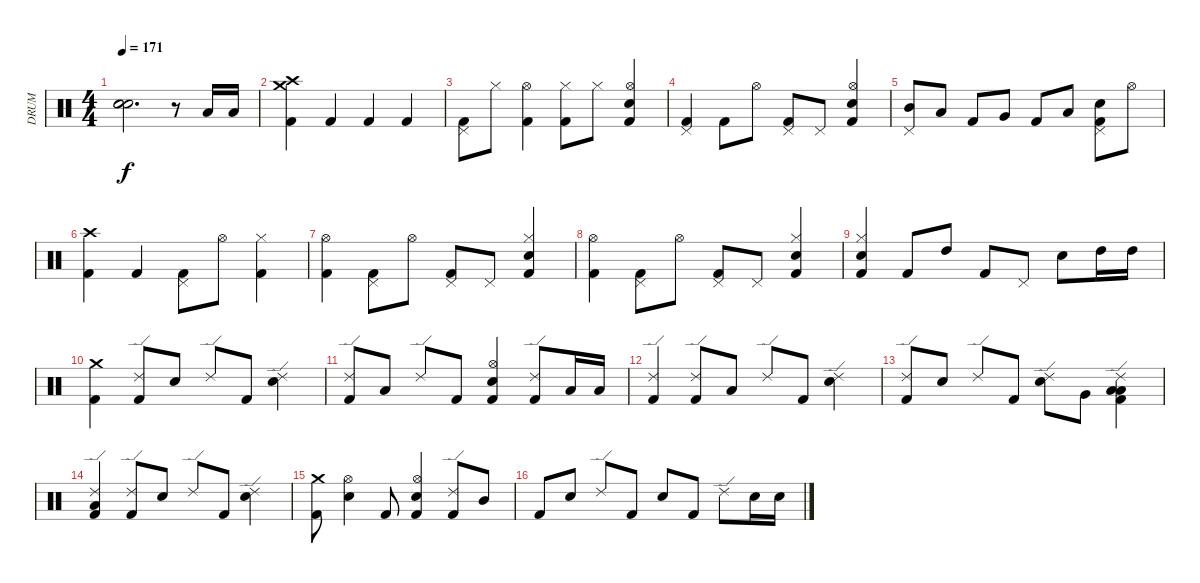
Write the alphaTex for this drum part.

\track ("DRUM" "DRUM") {instrument percussion}
\staff {score}
\articulation defaults
\ts (4 4)
\tempo 171
\clef neutral
\ks c
("Snare (hit)"{t} "Snare (hit)"{t} "Snare (hit)"{t}).2{d dy f} r.8 "Low Tom (hit)".16 "Low Tom (hit)".16 |
("Crash medium (hit)" "Crash high (hit)" "Kick (hit) 2").4 "Kick (hit) 2".4 "Kick (hit) 2".4 "Kick (hit) 2".4 |
("Pedal Hi-Hat (hit)" "Kick (hit) 2").8 "Hi-Hat (closed)".8 ("Hi-Hat (open)" "Kick (hit) 2").4 ("Hi-Hat (closed)" "Kick (hit) 2").8 "Hi-Hat (closed)".8 ("Hi-Hat (open)" "Electric Snare (hit)" "Kick (hit) 2").4 |
("Pedal Hi-Hat (hit)" "Kick (hit) 2").4 "Kick (hit) 2".8 "Hi-Hat (open)".8 ("Pedal Hi-Hat (hit)" "Kick (hit) 2").8 "Pedal Hi-Hat (hit)".8 ("Hi-Hat (open)" "Electric Snare (hit)" "Kick (hit) 2").4 |
("Pedal Hi-Hat (hit)" "Mid Tom (hit)").8 "Low Tom (hit)".8 "Kick (hit) 2".8 "Very Low Tom (hit)".8 "Kick (hit) 2".8 "Low Floor Tom (hit)".8 ("Pedal Hi-Hat (hit)" "Electric Snare (hit)" "Kick (hit) 2").8 "Hi-Hat (open)".8 |
("Crash high (hit)" "Kick (hit) 2").4 "Kick (hit) 2".4 ("Pedal Hi-Hat (hit)" "Kick (hit) 2").8 "Hi-Hat (open)".8 ("Hi-Hat (closed)" "Kick (hit) 2").4 |
("Hi-Hat (open)" "Kick (hit) 2").4 ("Pedal Hi-Hat (hit)" "Kick (hit) 2").8 "Hi-Hat (open)".8 ("Pedal Hi-Hat (hit)" "Kick (hit) 2").8 "Pedal Hi-Hat (hit)".8 ("Hi-Hat (closed)" "Electric Snare (hit)" "Kick (hit) 2").4 |
("Hi-Hat (open)" "Kick (hit) 2").4 ("Pedal Hi-Hat (hit)" "Kick (hit) 2").8 "Hi-Hat (open)".8 ("Pedal Hi-Hat (hit)" "Kick (hit) 2").8 "Pedal Hi-Hat (hit)".8 ("Hi-Hat (closed)" "Electric Snare (hit)" "Kick (hit) 2").4 |
("Hi-Hat (closed)" "Electric Snare (hit)" "Kick (hit) 2").4 "Kick (hit) 2".8 "High Tom (hit)".8 "Kick (hit) 2".8 "Pedal Hi-Hat (hit)".8 "Electric Snare (hit)".8 "High Tom (hit)".16 "High Tom (hit)".16 |
("Crash medium (hit)" "Kick (hit) 2").4 ("Ride (edge) 2" "Kick (hit) 2").8 "Electric Snare (hit)".8 "Ride (edge) 2".8 "Kick (hit) 2".8 ("Ride (edge) 2" "Electric Snare (hit)").4 |
("Ride (edge) 2" "Kick (hit) 2").8 "Low Tom (hit)".8 "Ride (edge) 2".8 "Kick (hit) 2".8 ("Hi-Hat (open)" "Electric Snare (hit)" "Kick (hit) 2").4 ("Ride (edge) 2" "Kick (hit) 2").8 "Low Floor Tom (hit)".16 "Low Floor Tom (hit)".16 |
("Ride (edge) 2" "Kick (hit) 2").4 ("Ride (edge) 2" "Kick (hit) 2").8 "Low Tom (hit)".8 "Ride (edge) 2".8 "Kick (hit) 2".8 ("Ride (edge) 2" "Electric Snare (hit)").4 |
("Ride (edge) 2" "Kick (hit) 2").8 "Electric Snare (hit)".8 "Ride (edge) 2".8 "Kick (hit) 2".8 ("Ride (edge) 2" "Electric Snare (hit)").8 "Very Low Tom (hit)".8 ("Ride (edge) 2" "Low Tom (hit)" "Low Tom (hit)" "Kick (hit) 2").4 |
("Ride (edge) 2" "Low Floor Tom (hit)" "Kick (hit) 2").4 ("Ride (edge) 2" "Kick (hit) 2").8 "Electric Snare (hit)".8 "Ride (edge) 2".8 "Kick (hit) 2".8 ("Ride (edge) 2" "Electric Snare (hit)").4 |
("Crash medium (hit)" "Kick (hit) 2").8 ("Hi-Hat (open)" "Electric Snare (hit)").4 "Kick (hit) 2".8 ("Hi-Hat (open)" "Electric Snare (hit)" "Kick (hit) 2").4 ("Ride (edge) 2" "Kick (hit) 2").8 "Mid Tom (hit)".8 |
"Kick (hit) 2".8 "Electric Snare (hit)".8 "Ride (edge) 2".8 "Kick (hit) 2".8 "Electric Snare (hit)".8 "Kick (hit) 2".8 "Ride (edge) 2".8 "Electric Snare (hit)".16 "Electric Snare (hit)".16
